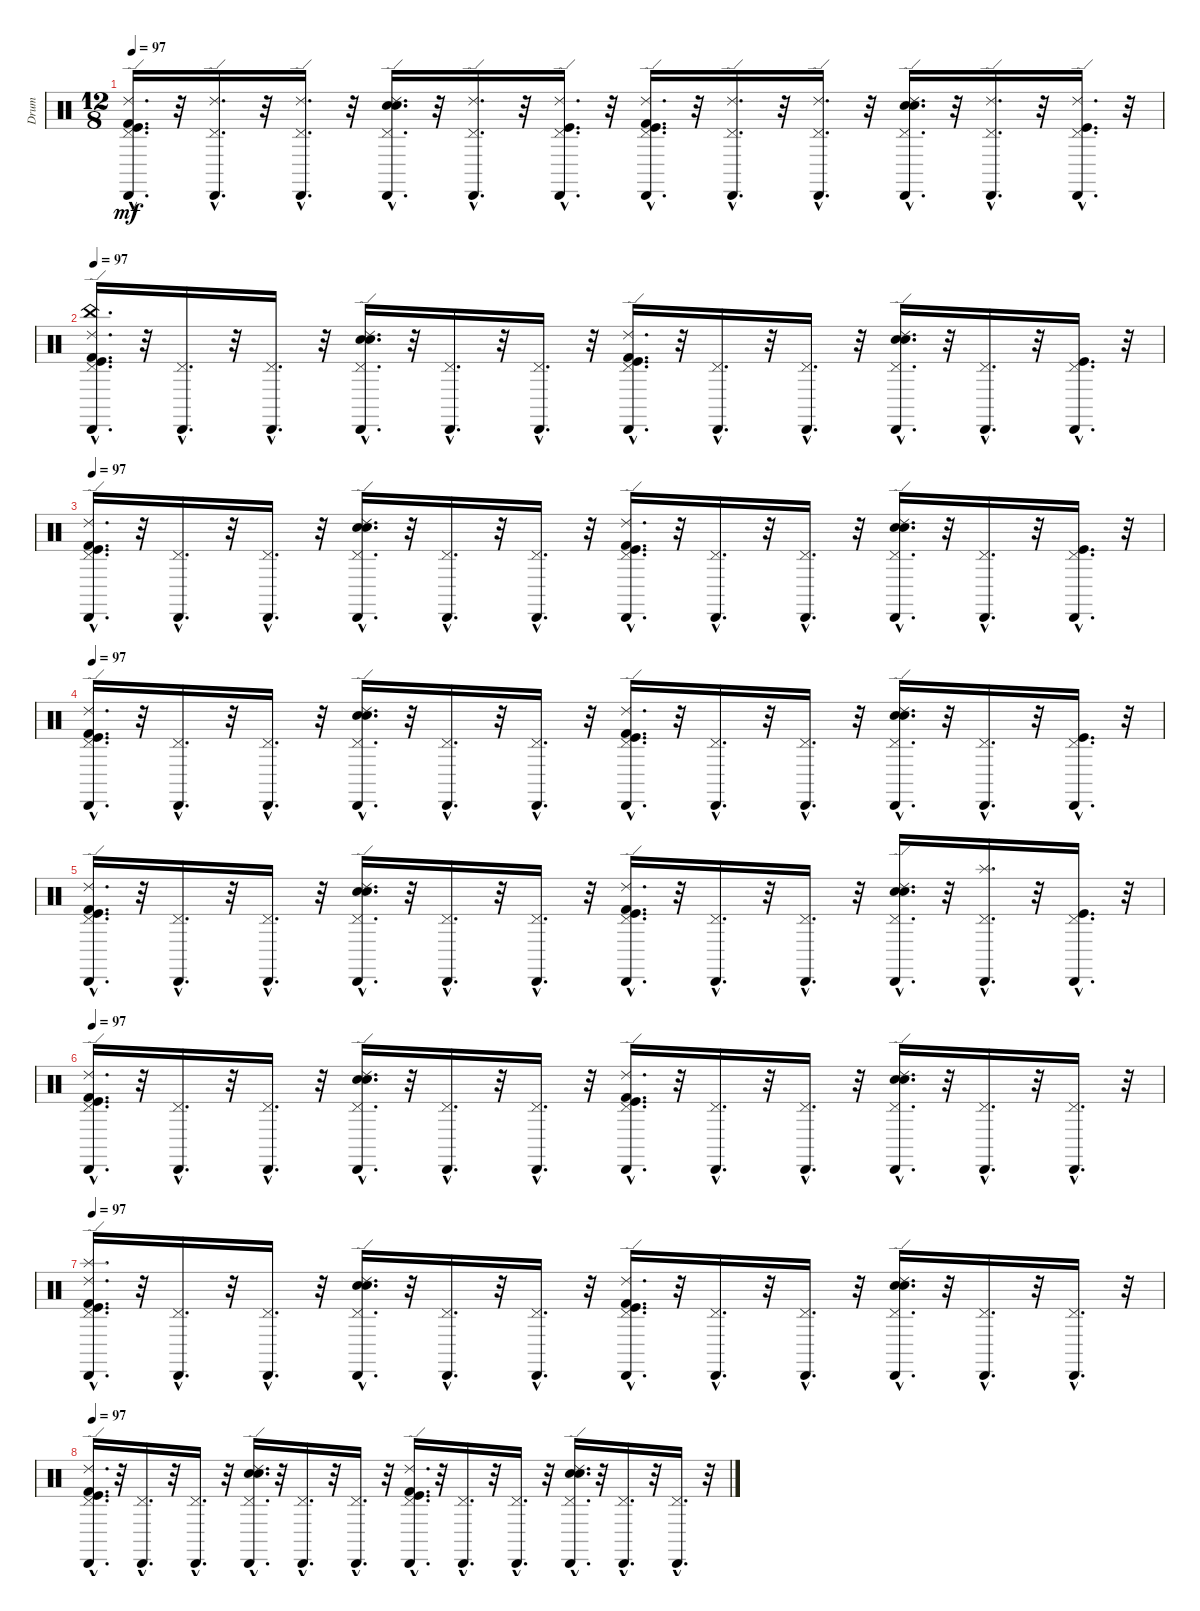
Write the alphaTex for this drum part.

\track ("Drum" "Drum") {instrument percussion}
\staff {score}
\articulation defaults
\ts (12 8)
\tempo 97
\clef neutral
\ks c
("Kick (hit)"{hac} "Pedal Hi-Hat (hit)"{hac} "Cabasa (hit)"{hac} "Ride (edge) 2"{hac} "Kick (hit) 2"{hac}).16{d dy mf} r.32 ("Cabasa (hit)"{hac} "Pedal Hi-Hat (hit)"{hac} "Ride (edge) 2"{hac}).16{d} r.32 ("Pedal Hi-Hat (hit)"{hac} "Cabasa (hit)"{hac} "Ride (edge) 2"{hac}).16{d} r.32 ("Pedal Hi-Hat (hit)"{hac} "Electric Snare (hit)"{hac} "Snare (hit) 2"{hac} "Cabasa (hit)"{hac} "Ride (edge) 2"{hac}).16{d} r.32 ("Cabasa (hit)"{hac} "Pedal Hi-Hat (hit)"{hac} "Ride (edge) 2"{hac}).16{d} r.32 ("Kick (hit)"{hac} "Cabasa (hit)"{hac} "Pedal Hi-Hat (hit)"{hac} "Ride (edge) 2"{hac}).16{d} r.32 ("Kick (hit) 2"{hac} "Kick (hit)"{hac} "Ride (edge) 2"{hac} "Pedal Hi-Hat (hit)"{hac} "Cabasa (hit)"{hac}).16{d} r.32 ("Cabasa (hit)"{hac} "Pedal Hi-Hat (hit)"{hac} "Ride (edge) 2"{hac}).16{d} r.32 ("Cabasa (hit)"{hac} "Pedal Hi-Hat (hit)"{hac} "Ride (edge) 2"{hac}).16{d} r.32 ("Ride (edge) 2"{hac} "Cabasa (hit)"{hac} "Pedal Hi-Hat (hit)"{hac} "Electric Snare (hit)"{hac} "Snare (hit) 2"{hac}).16{d} r.32 ("Cabasa (hit)"{hac} "Pedal Hi-Hat (hit)"{hac} "Ride (edge) 2"{hac}).16{d} r.32 ("Kick (hit)"{hac} "Cabasa (hit)"{hac} "Pedal Hi-Hat (hit)"{hac} "Ride (edge) 2"{hac}).16{d} r.32 |
\tempo 97
("China (hit)"{hac} "Ride (edge) 2"{hac} "Kick (hit) 2"{hac} "Pedal Hi-Hat (hit)"{hac} "Cabasa (hit)"{hac} "Kick (hit)"{hac}).16{d} r.32 ("Pedal Hi-Hat (hit)"{hac} "Cabasa (hit)"{hac}).16{d} r.32 ("Pedal Hi-Hat (hit)"{hac} "Cabasa (hit)"{hac}).16{d} r.32 ("Pedal Hi-Hat (hit)"{hac} "Ride (edge) 2"{hac} "Snare (hit) 2"{hac} "Cabasa (hit)"{hac} "Electric Snare (hit)"{hac}).16{d} r.32 ("Cabasa (hit)"{hac} "Pedal Hi-Hat (hit)"{hac}).16{d} r.32 ("Pedal Hi-Hat (hit)"{hac} "Cabasa (hit)"{hac}).16{d} r.32 ("Pedal Hi-Hat (hit)"{hac} "Ride (edge) 2"{hac} "Kick (hit) 2"{hac} "Kick (hit)"{hac} "Cabasa (hit)"{hac}).16{d} r.32 ("Pedal Hi-Hat (hit)"{hac} "Cabasa (hit)"{hac}).16{d} r.32 ("Pedal Hi-Hat (hit)"{hac} "Cabasa (hit)"{hac}).16{d} r.32 ("Ride (edge) 2"{hac} "Cabasa (hit)"{hac} "Pedal Hi-Hat (hit)"{hac} "Electric Snare (hit)"{hac} "Snare (hit) 2"{hac}).16{d} r.32 ("Cabasa (hit)"{hac} "Pedal Hi-Hat (hit)"{hac}).16{d} r.32 ("Kick (hit)"{hac} "Pedal Hi-Hat (hit)"{hac} "Cabasa (hit)"{hac}).16{d} r.32 |
\tempo 97
("Cabasa (hit)"{hac} "Kick (hit)"{hac} "Pedal Hi-Hat (hit)"{hac} "Kick (hit) 2"{hac} "Ride (edge) 2"{hac}).16{d} r.32 ("Pedal Hi-Hat (hit)"{hac} "Cabasa (hit)"{hac}).16{d} r.32 ("Pedal Hi-Hat (hit)"{hac} "Cabasa (hit)"{hac}).16{d} r.32 ("Pedal Hi-Hat (hit)"{hac} "Electric Snare (hit)"{hac} "Snare (hit) 2"{hac} "Ride (edge) 2"{hac} "Cabasa (hit)"{hac}).16{d} r.32 ("Cabasa (hit)"{hac} "Pedal Hi-Hat (hit)"{hac}).16{d} r.32 ("Cabasa (hit)"{hac} "Pedal Hi-Hat (hit)"{hac}).16{d} r.32 ("Pedal Hi-Hat (hit)"{hac} "Ride (edge) 2"{hac} "Kick (hit) 2"{hac} "Kick (hit)"{hac} "Cabasa (hit)"{hac}).16{d} r.32 ("Cabasa (hit)"{hac} "Pedal Hi-Hat (hit)"{hac}).16{d} r.32 ("Pedal Hi-Hat (hit)"{hac} "Cabasa (hit)"{hac}).16{d} r.32 ("Cabasa (hit)"{hac} "Pedal Hi-Hat (hit)"{hac} "Ride (edge) 2"{hac} "Snare (hit) 2"{hac} "Electric Snare (hit)"{hac}).16{d} r.32 ("Cabasa (hit)"{hac} "Pedal Hi-Hat (hit)"{hac}).16{d} r.32 ("Kick (hit)"{hac} "Pedal Hi-Hat (hit)"{hac} "Cabasa (hit)"{hac}).16{d} r.32 |
\tempo 97
("Pedal Hi-Hat (hit)"{hac} "Kick (hit) 2"{hac} "Ride (edge) 2"{hac} "Cabasa (hit)"{hac} "Kick (hit)"{hac}).16{d} r.32 ("Pedal Hi-Hat (hit)"{hac} "Cabasa (hit)"{hac}).16{d} r.32 ("Pedal Hi-Hat (hit)"{hac} "Cabasa (hit)"{hac}).16{d} r.32 ("Ride (edge) 2"{hac} "Snare (hit) 2"{hac} "Cabasa (hit)"{hac} "Electric Snare (hit)"{hac} "Pedal Hi-Hat (hit)"{hac}).16{d} r.32 ("Pedal Hi-Hat (hit)"{hac} "Cabasa (hit)"{hac}).16{d} r.32 ("Pedal Hi-Hat (hit)"{hac} "Cabasa (hit)"{hac}).16{d} r.32 ("Kick (hit) 2"{hac} "Cabasa (hit)"{hac} "Kick (hit)"{hac} "Ride (edge) 2"{hac} "Pedal Hi-Hat (hit)"{hac}).16{d} r.32 ("Cabasa (hit)"{hac} "Pedal Hi-Hat (hit)"{hac}).16{d} r.32 ("Pedal Hi-Hat (hit)"{hac} "Cabasa (hit)"{hac}).16{d} r.32 ("Pedal Hi-Hat (hit)"{hac} "Snare (hit) 2"{hac} "Cabasa (hit)"{hac} "Ride (edge) 2"{hac} "Electric Snare (hit)"{hac}).16{d} r.32 ("Cabasa (hit)"{hac} "Pedal Hi-Hat (hit)"{hac}).16{d} r.32 ("Kick (hit)"{hac} "Pedal Hi-Hat (hit)"{hac} "Cabasa (hit)"{hac}).16{d} r.32 |
("Pedal Hi-Hat (hit)"{hac} "Kick (hit)"{hac} "Cabasa (hit)"{hac} "Ride (edge) 2"{hac} "Kick (hit) 2"{hac}).16{d} r.32 ("Pedal Hi-Hat (hit)"{hac} "Cabasa (hit)"{hac}).16{d} r.32 ("Pedal Hi-Hat (hit)"{hac} "Cabasa (hit)"{hac}).16{d} r.32 ("Pedal Hi-Hat (hit)"{hac} "Snare (hit) 2"{hac} "Electric Snare (hit)"{hac} "Cabasa (hit)"{hac} "Ride (edge) 2"{hac}).16{d} r.32 ("Pedal Hi-Hat (hit)"{hac} "Cabasa (hit)"{hac}).16{d} r.32 ("Pedal Hi-Hat (hit)"{hac} "Cabasa (hit)"{hac}).16{d} r.32 ("Pedal Hi-Hat (hit)"{hac} "Kick (hit)"{hac} "Cabasa (hit)"{hac} "Ride (edge) 2"{hac} "Kick (hit) 2"{hac}).16{d} r.32 ("Pedal Hi-Hat (hit)"{hac} "Cabasa (hit)"{hac}).16{d} r.32 ("Pedal Hi-Hat (hit)"{hac} "Cabasa (hit)"{hac}).16{d} r.32 ("Pedal Hi-Hat (hit)"{hac} "Snare (hit) 2"{hac} "Electric Snare (hit)"{hac} "Cabasa (hit)"{hac} "Ride (edge) 2"{hac}).16{d} r.32 ("Splash (hit)"{hac} "Pedal Hi-Hat (hit)"{hac} "Cabasa (hit)"{hac}).16{d} r.32 ("Kick (hit)"{hac} "Pedal Hi-Hat (hit)"{hac} "Cabasa (hit)"{hac}).16{d} r.32 |
\tempo 97
("Ride (edge) 2"{hac} "Kick (hit)"{hac} "Cabasa (hit)"{hac} "Kick (hit) 2"{hac} "Pedal Hi-Hat (hit)"{hac}).16{d} r.32 ("Pedal Hi-Hat (hit)"{hac} "Cabasa (hit)"{hac}).16{d} r.32 ("Pedal Hi-Hat (hit)"{hac} "Cabasa (hit)"{hac}).16{d} r.32 ("Ride (edge) 2"{hac} "Snare (hit) 2"{hac} "Pedal Hi-Hat (hit)"{hac} "Electric Snare (hit)"{hac} "Cabasa (hit)"{hac}).16{d} r.32 ("Cabasa (hit)"{hac} "Pedal Hi-Hat (hit)"{hac}).16{d} r.32 ("Pedal Hi-Hat (hit)"{hac} "Cabasa (hit)"{hac}).16{d} r.32 ("Pedal Hi-Hat (hit)"{hac} "Kick (hit) 2"{hac} "Kick (hit)"{hac} "Ride (edge) 2"{hac} "Cabasa (hit)"{hac}).16{d} r.32 ("Pedal Hi-Hat (hit)"{hac} "Cabasa (hit)"{hac}).16{d} r.32 ("Pedal Hi-Hat (hit)"{hac} "Cabasa (hit)"{hac}).16{d} r.32 ("Ride (edge) 2"{hac} "Cabasa (hit)"{hac} "Pedal Hi-Hat (hit)"{hac} "Snare (hit) 2"{hac} "Electric Snare (hit)"{hac}).16{d} r.32 ("Cabasa (hit)"{hac} "Pedal Hi-Hat (hit)"{hac}).16{d} r.32 ("Pedal Hi-Hat (hit)"{hac} "Cabasa (hit)"{hac}).16{d} r.32 |
\tempo 97
("Cabasa (hit)"{hac} "Kick (hit)"{hac} "Pedal Hi-Hat (hit)"{hac} "Kick (hit) 2"{hac} "Ride (edge) 2"{hac} "Splash (hit)"{hac}).16{d} r.32 ("Pedal Hi-Hat (hit)"{hac} "Cabasa (hit)"{hac}).16{d} r.32 ("Pedal Hi-Hat (hit)"{hac} "Cabasa (hit)"{hac}).16{d} r.32 ("Pedal Hi-Hat (hit)"{hac} "Electric Snare (hit)"{hac} "Snare (hit) 2"{hac} "Ride (edge) 2"{hac} "Cabasa (hit)"{hac}).16{d} r.32 ("Cabasa (hit)"{hac} "Pedal Hi-Hat (hit)"{hac}).16{d} r.32 ("Cabasa (hit)"{hac} "Pedal Hi-Hat (hit)"{hac}).16{d} r.32 ("Pedal Hi-Hat (hit)"{hac} "Ride (edge) 2"{hac} "Kick (hit) 2"{hac} "Kick (hit)"{hac} "Cabasa (hit)"{hac}).16{d} r.32 ("Cabasa (hit)"{hac} "Pedal Hi-Hat (hit)"{hac}).16{d} r.32 ("Pedal Hi-Hat (hit)"{hac} "Cabasa (hit)"{hac}).16{d} r.32 ("Cabasa (hit)"{hac} "Pedal Hi-Hat (hit)"{hac} "Ride (edge) 2"{hac} "Snare (hit) 2"{hac} "Electric Snare (hit)"{hac}).16{d} r.32 ("Cabasa (hit)"{hac} "Pedal Hi-Hat (hit)"{hac}).16{d} r.32 ("Pedal Hi-Hat (hit)"{hac} "Cabasa (hit)"{hac}).16{d} r.32 |
\tempo 97
("Pedal Hi-Hat (hit)"{hac} "Kick (hit) 2"{hac} "Ride (edge) 2"{hac} "Cabasa (hit)"{hac} "Kick (hit)"{hac}).16{d} r.32 ("Pedal Hi-Hat (hit)"{hac} "Cabasa (hit)"{hac}).16{d} r.32 ("Pedal Hi-Hat (hit)"{hac} "Cabasa (hit)"{hac}).16{d} r.32 ("Ride (edge) 2"{hac} "Snare (hit) 2"{hac} "Cabasa (hit)"{hac} "Electric Snare (hit)"{hac} "Pedal Hi-Hat (hit)"{hac}).16{d} r.32 ("Pedal Hi-Hat (hit)"{hac} "Cabasa (hit)"{hac}).16{d} r.32 ("Pedal Hi-Hat (hit)"{hac} "Cabasa (hit)"{hac}).16{d} r.32 ("Kick (hit) 2"{hac} "Cabasa (hit)"{hac} "Kick (hit)"{hac} "Ride (edge) 2"{hac} "Pedal Hi-Hat (hit)"{hac}).16{d} r.32 ("Cabasa (hit)"{hac} "Pedal Hi-Hat (hit)"{hac}).16{d} r.32 ("Pedal Hi-Hat (hit)"{hac} "Cabasa (hit)"{hac}).16{d} r.32 ("Pedal Hi-Hat (hit)"{hac} "Snare (hit) 2"{hac} "Cabasa (hit)"{hac} "Ride (edge) 2"{hac} "Electric Snare (hit)"{hac}).16{d} r.32 ("Cabasa (hit)"{hac} "Pedal Hi-Hat (hit)"{hac}).16{d} r.32 ("Pedal Hi-Hat (hit)"{hac} "Cabasa (hit)"{hac}).16{d} r.32
